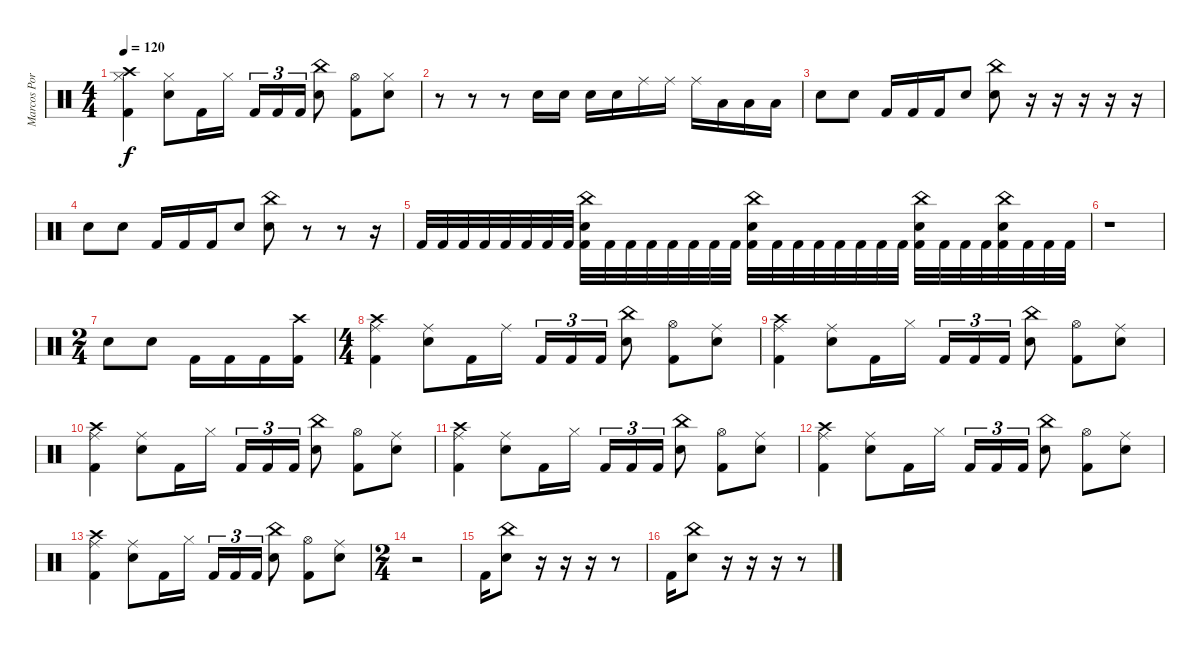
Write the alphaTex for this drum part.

\track ("Marcos Portinol" "Marcos Por") {instrument percussion}
\staff {score}
\articulation defaults
\ts (4 4)
\tempo 120
\clef neutral
\ks c
("Kick (hit) 2" "Crash high (hit)" "Hi-Hat (closed)").4{dy f} ("Electric Snare (hit)" "Hi-Hat (closed)").8 "Kick (hit) 2".16 "Hi-Hat (closed)".16 "Kick (hit) 2".16{tu (3 2)} "Kick (hit) 2".16{tu (3 2)} "Kick (hit) 2".16{tu (3 2)} ("Electric Snare (hit)" "China (hit)").8 ("Kick (hit) 2" "Hi-Hat (open)").8 ("Electric Snare (hit)" "Hi-Hat (closed)").8 |
r.8 r.8 r.8 "Electric Snare (hit)".16 "Electric Snare (hit)".16 "Electric Snare (hit)".16 "Electric Snare (hit)".16 "Ride (middle)".16 "Ride (middle)".16 "Ride (middle)".16 "Low Tom (hit)".16 "Low Tom (hit)".16 "Low Tom (hit)".16 |
"Electric Snare (hit)".8 "Electric Snare (hit)".8 "Kick (hit) 2".16 "Kick (hit) 2".16 "Kick (hit) 2".16 "Electric Snare (hit)".8 ("Electric Snare (hit)" "China (hit)").8 r.16 r.16 r.16 r.16 r.16 |
"Electric Snare (hit)".8 "Electric Snare (hit)".8 "Kick (hit) 2".16 "Kick (hit) 2".16 "Kick (hit) 2".16 "Electric Snare (hit)".8 ("Electric Snare (hit)" "China (hit)").8 r.8 r.8 r.16 |
"Kick (hit) 2".32 "Kick (hit) 2".32 "Kick (hit) 2".32 "Kick (hit) 2".32 "Kick (hit) 2".32 "Kick (hit) 2".32 "Kick (hit) 2".32 "Kick (hit) 2".32 ("Kick (hit) 2" "Electric Snare (hit)" "China (hit)").32 "Kick (hit) 2".32 "Kick (hit) 2".32 "Kick (hit) 2".32 "Kick (hit) 2".32 "Kick (hit) 2".32 "Kick (hit) 2".32 "Kick (hit) 2".32 ("Kick (hit) 2" "Electric Snare (hit)" "China (hit)").32 "Kick (hit) 2".32 "Kick (hit) 2".32 "Kick (hit) 2".32 "Kick (hit) 2".32 "Kick (hit) 2".32 "Kick (hit) 2".32 "Kick (hit) 2".32 ("Kick (hit) 2" "Electric Snare (hit)" "China (hit)").32 "Kick (hit) 2".32 "Kick (hit) 2".32 "Kick (hit) 2".32 ("Kick (hit) 2" "Electric Snare (hit)" "China (hit)").32 "Kick (hit) 2".32 "Kick (hit) 2".32 "Kick (hit) 2".32 |
r.1 |
\ts (2 4)
"Electric Snare (hit)".8 "Electric Snare (hit)".8 "Kick (hit) 2".16 "Kick (hit) 2".16 "Kick (hit) 2".16 ("Kick (hit) 2" "Crash high (hit)").16 |
\ts (4 4)
("Kick (hit) 2" "Crash high (hit)" "Ride (middle)").4 ("Electric Snare (hit)" "Ride (middle)").8 "Kick (hit) 2".16 "Ride (middle)".16 "Kick (hit) 2".16{tu (3 2)} "Kick (hit) 2".16{tu (3 2)} "Kick (hit) 2".16{tu (3 2)} ("Electric Snare (hit)" "China (hit)").8 ("Kick (hit) 2" "Hi-Hat (open)").8 ("Electric Snare (hit)" "Ride (middle)").8 |
("Kick (hit) 2" "Crash high (hit)" "Ride (middle)").4 ("Electric Snare (hit)" "Ride (middle)").8 "Kick (hit) 2".16 "Hi-Hat (closed)".16 "Kick (hit) 2".16{tu (3 2)} "Kick (hit) 2".16{tu (3 2)} "Kick (hit) 2".16{tu (3 2)} ("Electric Snare (hit)" "China (hit)").8 ("Kick (hit) 2" "Hi-Hat (open)").8 ("Electric Snare (hit)" "Ride (middle)").8 |
("Kick (hit) 2" "Crash high (hit)" "Ride (middle)").4 ("Electric Snare (hit)" "Ride (middle)").8 "Kick (hit) 2".16 "Hi-Hat (closed)".16 "Kick (hit) 2".16{tu (3 2)} "Kick (hit) 2".16{tu (3 2)} "Kick (hit) 2".16{tu (3 2)} ("Electric Snare (hit)" "China (hit)").8 ("Kick (hit) 2" "Hi-Hat (open)").8 ("Electric Snare (hit)" "Ride (middle)").8 |
("Kick (hit) 2" "Crash high (hit)" "Ride (middle)").4 ("Electric Snare (hit)" "Ride (middle)").8 "Kick (hit) 2".16 "Hi-Hat (closed)".16 "Kick (hit) 2".16{tu (3 2)} "Kick (hit) 2".16{tu (3 2)} "Kick (hit) 2".16{tu (3 2)} ("Electric Snare (hit)" "China (hit)").8 ("Kick (hit) 2" "Hi-Hat (open)").8 ("Electric Snare (hit)" "Ride (middle)").8 |
("Kick (hit) 2" "Crash high (hit)" "Ride (middle)").4 ("Electric Snare (hit)" "Ride (middle)").8 "Kick (hit) 2".16 "Hi-Hat (closed)".16 "Kick (hit) 2".16{tu (3 2)} "Kick (hit) 2".16{tu (3 2)} "Kick (hit) 2".16{tu (3 2)} ("Electric Snare (hit)" "China (hit)").8 ("Kick (hit) 2" "Hi-Hat (open)").8 ("Electric Snare (hit)" "Ride (middle)").8 |
("Kick (hit) 2" "Crash high (hit)" "Ride (middle)").4 ("Electric Snare (hit)" "Ride (middle)").8 "Kick (hit) 2".16 "Hi-Hat (closed)".16 "Kick (hit) 2".16{tu (3 2)} "Kick (hit) 2".16{tu (3 2)} "Kick (hit) 2".16{tu (3 2)} ("Electric Snare (hit)" "China (hit)").8 ("Kick (hit) 2" "Hi-Hat (open)").8 ("Electric Snare (hit)" "Ride (middle)").8 |
\ts (2 4)
r.2 |
"Kick (hit) 2".16 ("Electric Snare (hit)" "China (hit)").8 r.16 r.16 r.16 r.8 |
"Kick (hit) 2".16 ("Electric Snare (hit)" "China (hit)").8 r.16 r.16 r.16 r.8
